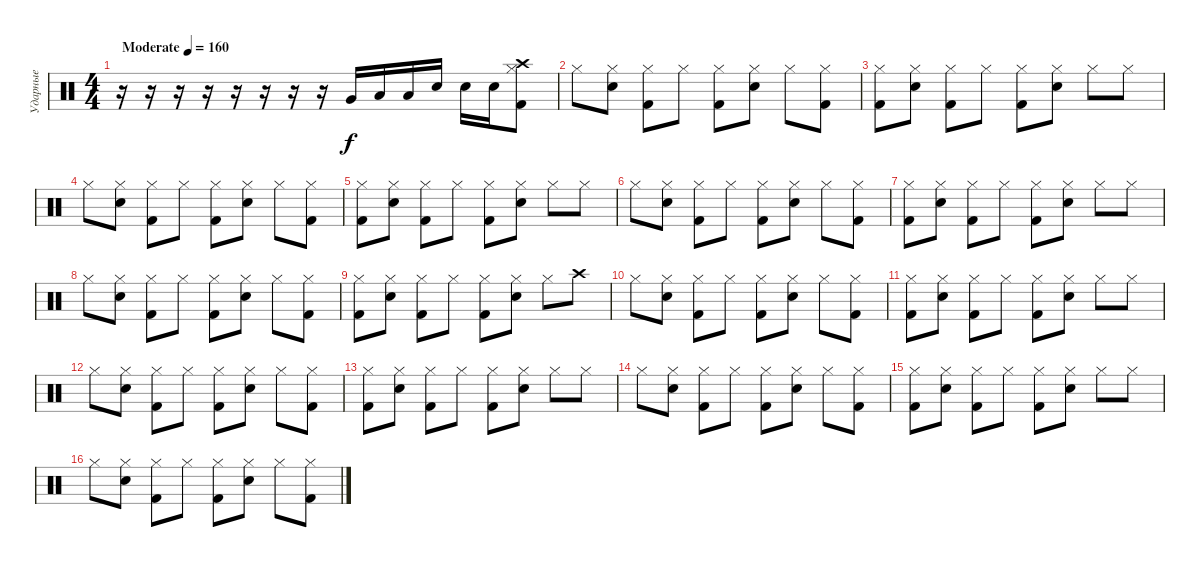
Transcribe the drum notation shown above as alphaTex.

\track ("Ударные" "Ударные") {instrument percussion}
\staff {score}
\articulation defaults
\ts (4 4)
\tempo (160 "Moderate")
\clef neutral
\ks c
r.16{dy f} r.16 r.16 r.16 r.16 r.16 r.16 r.16 "Very Low Tom (hit)".16 "Low Floor Tom (hit)".16 "Low Floor Tom (hit)".16 "Snare (hit) 2".16 "Snare (hit) 2".16 "Electric Snare (hit)".16 ("Hi-Hat (closed)" "Crash high (hit)" "Kick (hit) 2").8 |
"Hi-Hat (closed)".8 ("Hi-Hat (closed)" "Snare (hit) 2").8 ("Hi-Hat (closed)" "Kick (hit) 2").8 "Hi-Hat (closed)".8 ("Hi-Hat (closed)" "Kick (hit) 2").8 ("Hi-Hat (closed)" "Snare (hit) 2").8 "Hi-Hat (closed)".8 ("Hi-Hat (closed)" "Kick (hit) 2").8 |
("Hi-Hat (closed)" "Kick (hit) 2").8 ("Hi-Hat (closed)" "Snare (hit) 2").8 ("Hi-Hat (closed)" "Kick (hit) 2").8 "Hi-Hat (closed)".8 ("Hi-Hat (closed)" "Kick (hit) 2").8 ("Hi-Hat (closed)" "Snare (hit) 2").8 "Hi-Hat (closed)".8 "Hi-Hat (closed)".8 |
"Hi-Hat (closed)".8 ("Hi-Hat (closed)" "Snare (hit) 2").8 ("Hi-Hat (closed)" "Kick (hit) 2").8 "Hi-Hat (closed)".8 ("Hi-Hat (closed)" "Kick (hit) 2").8 ("Hi-Hat (closed)" "Snare (hit) 2").8 "Hi-Hat (closed)".8 ("Hi-Hat (closed)" "Kick (hit) 2").8 |
("Hi-Hat (closed)" "Kick (hit) 2").8 ("Hi-Hat (closed)" "Snare (hit) 2").8 ("Hi-Hat (closed)" "Kick (hit) 2").8 "Hi-Hat (closed)".8 ("Hi-Hat (closed)" "Kick (hit) 2").8 ("Hi-Hat (closed)" "Snare (hit) 2").8 "Hi-Hat (closed)".8 "Hi-Hat (closed)".8 |
"Hi-Hat (closed)".8 ("Hi-Hat (closed)" "Snare (hit) 2").8 ("Hi-Hat (closed)" "Kick (hit) 2").8 "Hi-Hat (closed)".8 ("Hi-Hat (closed)" "Kick (hit) 2").8 ("Hi-Hat (closed)" "Snare (hit) 2").8 "Hi-Hat (closed)".8 ("Hi-Hat (closed)" "Kick (hit) 2").8 |
("Hi-Hat (closed)" "Kick (hit) 2").8 ("Hi-Hat (closed)" "Snare (hit) 2").8 ("Hi-Hat (closed)" "Kick (hit) 2").8 "Hi-Hat (closed)".8 ("Hi-Hat (closed)" "Kick (hit) 2").8 ("Hi-Hat (closed)" "Snare (hit) 2").8 "Hi-Hat (closed)".8 "Hi-Hat (closed)".8 |
"Hi-Hat (closed)".8 ("Hi-Hat (closed)" "Snare (hit) 2").8 ("Hi-Hat (closed)" "Kick (hit) 2").8 "Hi-Hat (closed)".8 ("Hi-Hat (closed)" "Kick (hit) 2").8 ("Hi-Hat (closed)" "Snare (hit) 2").8 "Hi-Hat (closed)".8 ("Hi-Hat (closed)" "Kick (hit) 2").8 |
("Hi-Hat (closed)" "Kick (hit) 2").8 ("Hi-Hat (closed)" "Snare (hit) 2").8 ("Hi-Hat (closed)" "Kick (hit) 2").8 "Hi-Hat (closed)".8 ("Hi-Hat (closed)" "Kick (hit) 2").8 ("Hi-Hat (closed)" "Snare (hit) 2").8 "Hi-Hat (closed)".8 "Crash high (hit)".8 |
"Hi-Hat (closed)".8 ("Hi-Hat (closed)" "Snare (hit) 2").8 ("Hi-Hat (closed)" "Kick (hit) 2").8 "Hi-Hat (closed)".8 ("Hi-Hat (closed)" "Kick (hit) 2").8 ("Hi-Hat (closed)" "Snare (hit) 2").8 "Hi-Hat (closed)".8 ("Hi-Hat (closed)" "Kick (hit) 2").8 |
("Hi-Hat (closed)" "Kick (hit) 2").8 ("Hi-Hat (closed)" "Snare (hit) 2").8 ("Hi-Hat (closed)" "Kick (hit) 2").8 "Hi-Hat (closed)".8 ("Hi-Hat (closed)" "Kick (hit) 2").8 ("Hi-Hat (closed)" "Snare (hit) 2").8 "Hi-Hat (closed)".8 "Hi-Hat (closed)".8 |
"Hi-Hat (closed)".8 ("Hi-Hat (closed)" "Snare (hit) 2").8 ("Hi-Hat (closed)" "Kick (hit) 2").8 "Hi-Hat (closed)".8 ("Hi-Hat (closed)" "Kick (hit) 2").8 ("Hi-Hat (closed)" "Snare (hit) 2").8 "Hi-Hat (closed)".8 ("Hi-Hat (closed)" "Kick (hit) 2").8 |
("Hi-Hat (closed)" "Kick (hit) 2").8 ("Hi-Hat (closed)" "Snare (hit) 2").8 ("Hi-Hat (closed)" "Kick (hit) 2").8 "Hi-Hat (closed)".8 ("Hi-Hat (closed)" "Kick (hit) 2").8 ("Hi-Hat (closed)" "Snare (hit) 2").8 "Hi-Hat (closed)".8 "Hi-Hat (closed)".8 |
"Hi-Hat (closed)".8 ("Hi-Hat (closed)" "Snare (hit) 2").8 ("Hi-Hat (closed)" "Kick (hit) 2").8 "Hi-Hat (closed)".8 ("Hi-Hat (closed)" "Kick (hit) 2").8 ("Hi-Hat (closed)" "Snare (hit) 2").8 "Hi-Hat (closed)".8 ("Hi-Hat (closed)" "Kick (hit) 2").8 |
("Hi-Hat (closed)" "Kick (hit) 2").8 ("Hi-Hat (closed)" "Snare (hit) 2").8 ("Hi-Hat (closed)" "Kick (hit) 2").8 "Hi-Hat (closed)".8 ("Hi-Hat (closed)" "Kick (hit) 2").8 ("Hi-Hat (closed)" "Snare (hit) 2").8 "Hi-Hat (closed)".8 "Hi-Hat (closed)".8 |
"Hi-Hat (closed)".8 ("Hi-Hat (closed)" "Snare (hit) 2").8 ("Hi-Hat (closed)" "Kick (hit) 2").8 "Hi-Hat (closed)".8 ("Hi-Hat (closed)" "Kick (hit) 2").8 ("Hi-Hat (closed)" "Snare (hit) 2").8 "Hi-Hat (closed)".8 ("Hi-Hat (closed)" "Kick (hit) 2").8
